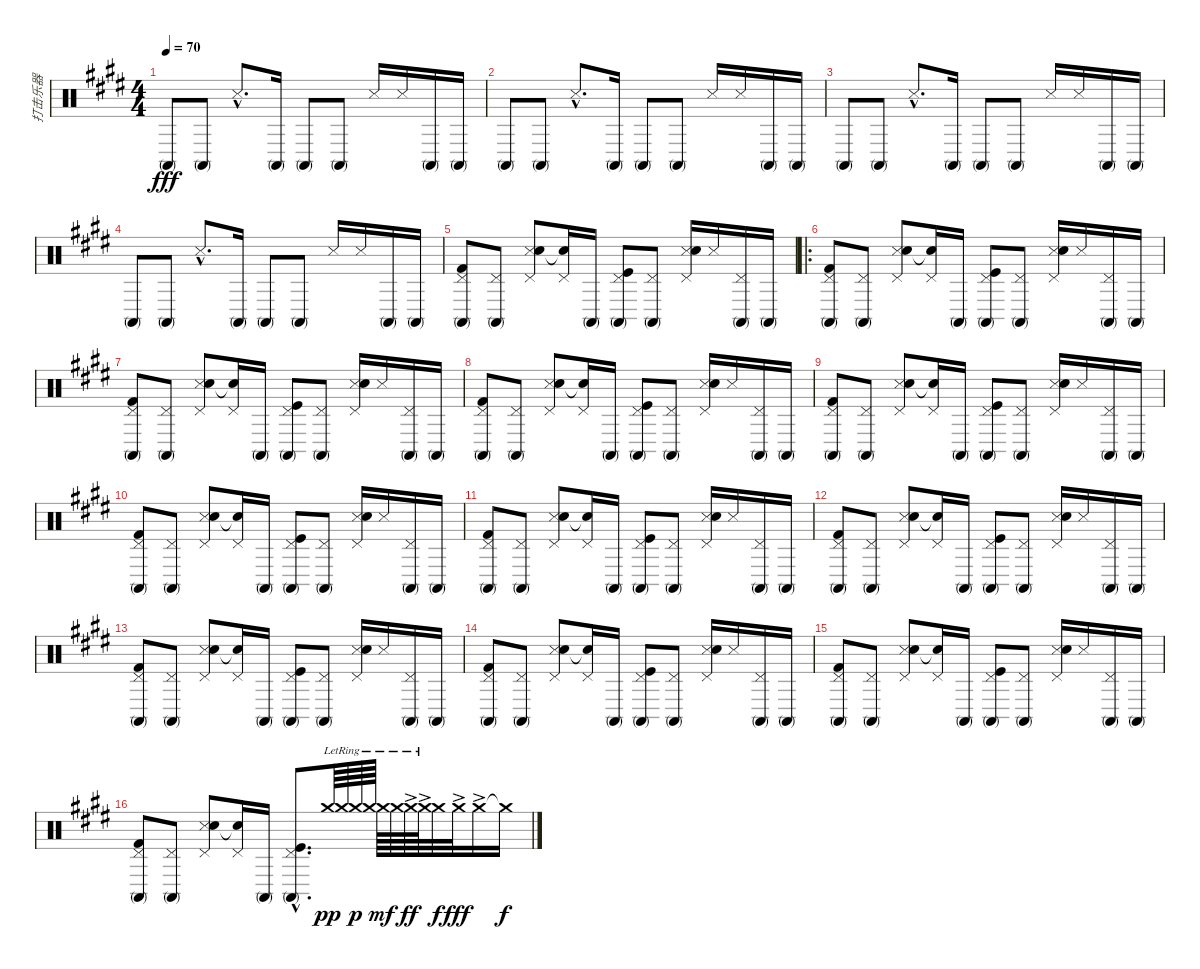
\track ("打击乐器" "打击乐器") {instrument percussion}
\staff {score}
\articulation defaults
\ts (4 4)
\tempo 70
\clef neutral
\ks e "Conga high (mute)".8{dy fff} "Conga high (mute)".8 "Metronome (hit)"{hac}.8{d} "Conga high (mute)".16 "Conga high (mute)".8 "Conga high (mute)".8 "Metronome (hit)".16 "Metronome (hit)".16 "Conga high (mute)".16 "Conga high (mute)".16
|
"Conga high (mute)".8 "Conga high (mute)".8 "Metronome (hit)"{hac}.8{d} "Conga high (mute)".16 "Conga high (mute)".8 "Conga high (mute)".8 "Metronome (hit)".16 "Metronome (hit)".16 "Conga high (mute)".16 "Conga high (mute)".16 |
"Conga high (mute)".8 "Conga high (mute)".8 "Metronome (hit)"{hac}.8{d} "Conga high (mute)".16 "Conga high (mute)".8 "Conga high (mute)".8 "Metronome (hit)".16 "Metronome (hit)".16 "Conga high (mute)".16 "Conga high (mute)".16 |
"Conga high (mute)".8 "Conga high (mute)".8 "Metronome (hit)"{hac}.8{d} "Conga high (mute)".16 "Conga high (mute)".8 "Conga high (mute)".8 "Metronome (hit)".16 "Metronome (hit)".16 "Conga high (mute)".16 "Conga high (mute)".16 |
("Conga high (mute)" "Pedal Hi-Hat (hit)" "Kick (hit) 2").8 ("Conga high (mute)" "Pedal Hi-Hat (hit)").8 ("Metronome (hit)" "Pedal Hi-Hat (hit)" "Hand Clap (hit)").8 ("Snare (hit)"{t} "Pedal Hi-Hat (hit)").16 "Conga high (mute)".16 ("Conga high (mute)" "Pedal Hi-Hat (hit)" "Kick (hit)").8 ("Conga high (mute)" "Pedal Hi-Hat (hit)").8 ("Metronome (hit)" "Pedal Hi-Hat (hit)" "Hand Clap (hit)").16 "Metronome (hit)".16 ("Conga high (mute)" "Pedal Hi-Hat (hit)").16 "Conga high (mute)".16 |
\ro
("Conga high (mute)" "Pedal Hi-Hat (hit)" "Kick (hit) 2").8 ("Conga high (mute)" "Pedal Hi-Hat (hit)").8 ("Metronome (hit)" "Pedal Hi-Hat (hit)" "Hand Clap (hit)").8 ("Snare (hit)"{t} "Pedal Hi-Hat (hit)").16 "Conga high (mute)".16 ("Conga high (mute)" "Pedal Hi-Hat (hit)" "Kick (hit)").8 ("Conga high (mute)" "Pedal Hi-Hat (hit)").8 ("Metronome (hit)" "Pedal Hi-Hat (hit)" "Hand Clap (hit)").16 "Metronome (hit)".16 ("Conga high (mute)" "Pedal Hi-Hat (hit)").16 "Conga high (mute)".16 |
("Conga high (mute)" "Pedal Hi-Hat (hit)" "Kick (hit) 2").8 ("Conga high (mute)" "Pedal Hi-Hat (hit)").8 ("Metronome (hit)" "Pedal Hi-Hat (hit)" "Hand Clap (hit)").8 ("Snare (hit)"{t} "Pedal Hi-Hat (hit)").16 "Conga high (mute)".16 ("Conga high (mute)" "Pedal Hi-Hat (hit)" "Kick (hit)").8 ("Conga high (mute)" "Pedal Hi-Hat (hit)").8 ("Metronome (hit)" "Pedal Hi-Hat (hit)" "Hand Clap (hit)").16 "Metronome (hit)".16 ("Conga high (mute)" "Pedal Hi-Hat (hit)").16 "Conga high (mute)".16 |
("Conga high (mute)" "Pedal Hi-Hat (hit)" "Kick (hit) 2").8 ("Conga high (mute)" "Pedal Hi-Hat (hit)").8 ("Metronome (hit)" "Pedal Hi-Hat (hit)" "Hand Clap (hit)").8 ("Snare (hit)"{t} "Pedal Hi-Hat (hit)").16 "Conga high (mute)".16 ("Conga high (mute)" "Pedal Hi-Hat (hit)" "Kick (hit)").8 ("Conga high (mute)" "Pedal Hi-Hat (hit)").8 ("Metronome (hit)" "Pedal Hi-Hat (hit)" "Hand Clap (hit)").16 "Metronome (hit)".16 ("Conga high (mute)" "Pedal Hi-Hat (hit)").16 "Conga high (mute)".16 |
("Conga high (mute)" "Pedal Hi-Hat (hit)" "Kick (hit) 2").8 ("Conga high (mute)" "Pedal Hi-Hat (hit)").8 ("Metronome (hit)" "Pedal Hi-Hat (hit)" "Hand Clap (hit)").8 ("Snare (hit)"{t} "Pedal Hi-Hat (hit)").16 "Conga high (mute)".16 ("Conga high (mute)" "Pedal Hi-Hat (hit)" "Kick (hit)").8 ("Conga high (mute)" "Pedal Hi-Hat (hit)").8 ("Metronome (hit)" "Pedal Hi-Hat (hit)" "Hand Clap (hit)").16 "Metronome (hit)".16 ("Conga high (mute)" "Pedal Hi-Hat (hit)").16 "Conga high (mute)".16 |
("Conga high (mute)" "Pedal Hi-Hat (hit)" "Kick (hit) 2").8 ("Conga high (mute)" "Pedal Hi-Hat (hit)").8 ("Metronome (hit)" "Pedal Hi-Hat (hit)" "Hand Clap (hit)").8 ("Snare (hit)"{t} "Pedal Hi-Hat (hit)").16 "Conga high (mute)".16 ("Conga high (mute)" "Pedal Hi-Hat (hit)" "Kick (hit)").8 ("Conga high (mute)" "Pedal Hi-Hat (hit)").8 ("Metronome (hit)" "Pedal Hi-Hat (hit)" "Hand Clap (hit)").16 "Metronome (hit)".16 ("Conga high (mute)" "Pedal Hi-Hat (hit)").16 "Conga high (mute)".16 |
("Conga high (mute)" "Pedal Hi-Hat (hit)" "Kick (hit) 2").8 ("Conga high (mute)" "Pedal Hi-Hat (hit)").8 ("Metronome (hit)" "Pedal Hi-Hat (hit)" "Hand Clap (hit)").8 ("Snare (hit)"{t} "Pedal Hi-Hat (hit)").16 "Conga high (mute)".16 ("Conga high (mute)" "Pedal Hi-Hat (hit)" "Kick (hit)").8 ("Conga high (mute)" "Pedal Hi-Hat (hit)").8 ("Metronome (hit)" "Pedal Hi-Hat (hit)" "Hand Clap (hit)").16 "Metronome (hit)".16 ("Conga high (mute)" "Pedal Hi-Hat (hit)").16 "Conga high (mute)".16 |
("Conga high (mute)" "Pedal Hi-Hat (hit)" "Kick (hit) 2").8 ("Conga high (mute)" "Pedal Hi-Hat (hit)").8 ("Metronome (hit)" "Pedal Hi-Hat (hit)" "Hand Clap (hit)").8 ("Snare (hit)"{t} "Pedal Hi-Hat (hit)").16 "Conga high (mute)".16 ("Conga high (mute)" "Pedal Hi-Hat (hit)" "Kick (hit)").8 ("Conga high (mute)" "Pedal Hi-Hat (hit)").8 ("Metronome (hit)" "Pedal Hi-Hat (hit)" "Hand Clap (hit)").16 "Metronome (hit)".16 ("Conga high (mute)" "Pedal Hi-Hat (hit)").16 "Conga high (mute)".16 |
("Conga high (mute)" "Pedal Hi-Hat (hit)" "Kick (hit) 2").8 ("Conga high (mute)" "Pedal Hi-Hat (hit)").8 ("Metronome (hit)" "Pedal Hi-Hat (hit)" "Hand Clap (hit)").8 ("Snare (hit)"{t} "Pedal Hi-Hat (hit)").16 "Conga high (mute)".16 ("Conga high (mute)" "Pedal Hi-Hat (hit)" "Kick (hit)").8 ("Conga high (mute)" "Pedal Hi-Hat (hit)").8 ("Metronome (hit)" "Pedal Hi-Hat (hit)" "Hand Clap (hit)").16 "Metronome (hit)".16 ("Conga high (mute)" "Pedal Hi-Hat (hit)").16 "Conga high (mute)".16 |
("Conga high (mute)" "Pedal Hi-Hat (hit)" "Kick (hit) 2").8 ("Conga high (mute)" "Pedal Hi-Hat (hit)").8 ("Metronome (hit)" "Pedal Hi-Hat (hit)" "Hand Clap (hit)").8 ("Snare (hit)"{t} "Pedal Hi-Hat (hit)").16 "Conga high (mute)".16 ("Conga high (mute)" "Pedal Hi-Hat (hit)" "Kick (hit)").8 ("Conga high (mute)" "Pedal Hi-Hat (hit)").8 ("Metronome (hit)" "Pedal Hi-Hat (hit)" "Hand Clap (hit)").16 "Metronome (hit)".16 ("Conga high (mute)" "Pedal Hi-Hat (hit)").16 "Conga high (mute)".16 |
("Conga high (mute)" "Pedal Hi-Hat (hit)" "Kick (hit) 2").8 ("Conga high (mute)" "Pedal Hi-Hat (hit)").8 ("Metronome (hit)" "Pedal Hi-Hat (hit)" "Hand Clap (hit)").8 ("Snare (hit)"{t} "Pedal Hi-Hat (hit)").16 "Conga high (mute)".16 ("Conga high (mute)" "Pedal Hi-Hat (hit)" "Kick (hit)").8 ("Conga high (mute)" "Pedal Hi-Hat (hit)").8 ("Metronome (hit)" "Pedal Hi-Hat (hit)" "Hand Clap (hit)").16 "Metronome (hit)".16 ("Conga high (mute)" "Pedal Hi-Hat (hit)").16 "Conga high (mute)".16 |
("Conga high (mute)" "Pedal Hi-Hat (hit)" "Kick (hit) 2").8 ("Conga high (mute)" "Pedal Hi-Hat (hit)").8 ("Metronome (hit)" "Pedal Hi-Hat (hit)" "Hand Clap (hit)").8 ("Snare (hit)"{t} "Pedal Hi-Hat (hit)").16 "Conga high (mute)".16 ("Conga high (mute)"{hac} "Pedal Hi-Hat (hit)"{hac} "Kick (hit)"{hac}).8{d} "Crash medium (hit)".64{dy pp} "Crash medium (hit)"{lr}.64 "Crash medium (hit)"{lr}.64{dy p} "Crash medium (hit)"{lr}.64 "Crash medium (hit)"{lr}.64{dy mf} "Crash medium (hit)"{lr}.64 "Crash medium (hit)"{ac lr}.64{dy ff} "Crash medium (hit)"{ac lr}.64 "Crash medium (hit)".32{dy f} "Crash medium (hit)"{ac}.32{dy fff} "Crash medium (hit)"{ac}.16 "Crash medium (hit)"{t}.16{dy f}
